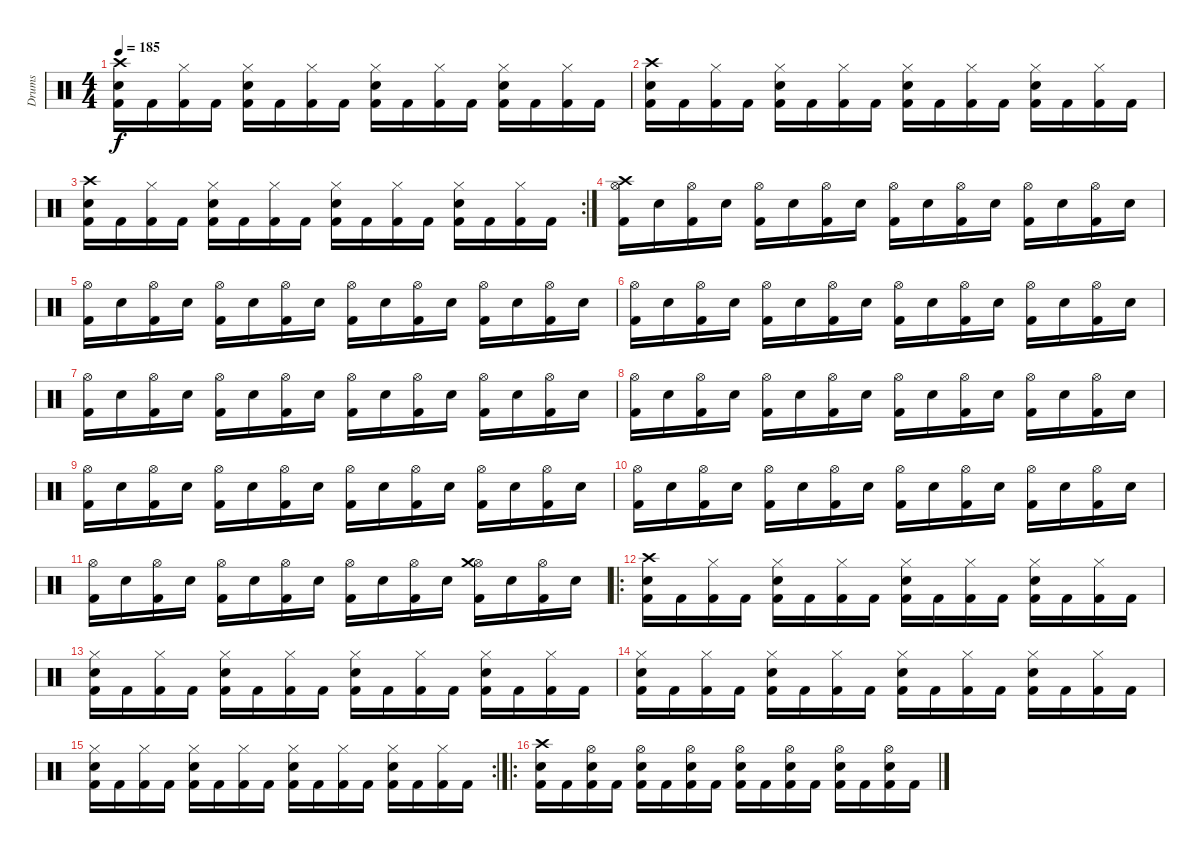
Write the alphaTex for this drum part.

\track ("Drums" "Drums") {instrument percussion}
\staff {score}
\articulation defaults
\ts (4 4)
\tempo 185
\clef neutral
\ks c
("Crash high (hit)" "Snare (hit) 2" "Kick (hit) 2").16{dy f} "Kick (hit) 2".16 ("Hi-Hat (closed)" "Kick (hit) 2").16 "Kick (hit) 2".16 ("Hi-Hat (closed)" "Snare (hit) 2" "Kick (hit) 2").16 "Kick (hit) 2".16 ("Hi-Hat (closed)" "Kick (hit) 2").16 "Kick (hit) 2".16 ("Hi-Hat (closed)" "Snare (hit) 2" "Kick (hit) 2").16 "Kick (hit) 2".16 ("Hi-Hat (closed)" "Kick (hit) 2").16 "Kick (hit) 2".16 ("Hi-Hat (closed)" "Snare (hit) 2" "Kick (hit) 2").16 "Kick (hit) 2".16 ("Hi-Hat (closed)" "Kick (hit) 2").16 "Kick (hit) 2".16 |
("Crash high (hit)" "Snare (hit) 2" "Kick (hit) 2").16 "Kick (hit) 2".16 ("Hi-Hat (closed)" "Kick (hit) 2").16 "Kick (hit) 2".16 ("Hi-Hat (closed)" "Snare (hit) 2" "Kick (hit) 2").16 "Kick (hit) 2".16 ("Hi-Hat (closed)" "Kick (hit) 2").16 "Kick (hit) 2".16 ("Hi-Hat (closed)" "Snare (hit) 2" "Kick (hit) 2").16 "Kick (hit) 2".16 ("Hi-Hat (closed)" "Kick (hit) 2").16 "Kick (hit) 2".16 ("Hi-Hat (closed)" "Snare (hit) 2" "Kick (hit) 2").16 "Kick (hit) 2".16 ("Hi-Hat (closed)" "Kick (hit) 2").16 "Kick (hit) 2".16 |
\rc 2
("Crash high (hit)" "Snare (hit) 2" "Kick (hit) 2").16 "Kick (hit) 2".16 ("Hi-Hat (closed)" "Kick (hit) 2").16 "Kick (hit) 2".16 ("Hi-Hat (closed)" "Snare (hit) 2" "Kick (hit) 2").16 "Kick (hit) 2".16 ("Hi-Hat (closed)" "Kick (hit) 2").16 "Kick (hit) 2".16 ("Hi-Hat (closed)" "Snare (hit) 2" "Kick (hit) 2").16 "Kick (hit) 2".16 ("Hi-Hat (closed)" "Kick (hit) 2").16 "Kick (hit) 2".16 ("Hi-Hat (closed)" "Snare (hit) 2" "Kick (hit) 2").16 "Kick (hit) 2".16 ("Hi-Hat (closed)" "Kick (hit) 2").16 "Kick (hit) 2".16 |
("Hi-Hat (open)" "Crash high (hit)" "Kick (hit) 2").16 "Snare (hit) 2".16 ("Hi-Hat (open)" "Kick (hit) 2").16 "Snare (hit) 2".16 ("Hi-Hat (open)" "Kick (hit) 2").16 "Snare (hit) 2".16 ("Hi-Hat (open)" "Kick (hit) 2").16 "Snare (hit) 2".16 ("Hi-Hat (open)" "Kick (hit) 2").16 "Snare (hit) 2".16 ("Hi-Hat (open)" "Kick (hit) 2").16 "Snare (hit) 2".16 ("Hi-Hat (open)" "Kick (hit) 2").16 "Snare (hit) 2".16 ("Hi-Hat (open)" "Kick (hit) 2").16 "Snare (hit) 2".16 |
("Hi-Hat (open)" "Kick (hit) 2").16 "Snare (hit) 2".16 ("Hi-Hat (open)" "Kick (hit) 2").16 "Snare (hit) 2".16 ("Hi-Hat (open)" "Kick (hit) 2").16 "Snare (hit) 2".16 ("Hi-Hat (open)" "Kick (hit) 2").16 "Snare (hit) 2".16 ("Hi-Hat (open)" "Kick (hit) 2").16 "Snare (hit) 2".16 ("Hi-Hat (open)" "Kick (hit) 2").16 "Snare (hit) 2".16 ("Hi-Hat (open)" "Kick (hit) 2").16 "Snare (hit) 2".16 ("Hi-Hat (open)" "Kick (hit) 2").16 "Snare (hit) 2".16 |
("Hi-Hat (open)" "Kick (hit) 2").16 "Snare (hit) 2".16 ("Hi-Hat (open)" "Kick (hit) 2").16 "Snare (hit) 2".16 ("Hi-Hat (open)" "Kick (hit) 2").16 "Snare (hit) 2".16 ("Hi-Hat (open)" "Kick (hit) 2").16 "Snare (hit) 2".16 ("Hi-Hat (open)" "Kick (hit) 2").16 "Snare (hit) 2".16 ("Hi-Hat (open)" "Kick (hit) 2").16 "Snare (hit) 2".16 ("Hi-Hat (open)" "Kick (hit) 2").16 "Snare (hit) 2".16 ("Hi-Hat (open)" "Kick (hit) 2").16 "Snare (hit) 2".16 |
("Hi-Hat (open)" "Kick (hit) 2").16 "Snare (hit) 2".16 ("Hi-Hat (open)" "Kick (hit) 2").16 "Snare (hit) 2".16 ("Hi-Hat (open)" "Kick (hit) 2").16 "Snare (hit) 2".16 ("Hi-Hat (open)" "Kick (hit) 2").16 "Snare (hit) 2".16 ("Hi-Hat (open)" "Kick (hit) 2").16 "Snare (hit) 2".16 ("Hi-Hat (open)" "Kick (hit) 2").16 "Snare (hit) 2".16 ("Hi-Hat (open)" "Kick (hit) 2").16 "Snare (hit) 2".16 ("Hi-Hat (open)" "Kick (hit) 2").16 "Snare (hit) 2".16 |
("Hi-Hat (open)" "Kick (hit) 2").16 "Snare (hit) 2".16 ("Hi-Hat (open)" "Kick (hit) 2").16 "Snare (hit) 2".16 ("Hi-Hat (open)" "Kick (hit) 2").16 "Snare (hit) 2".16 ("Hi-Hat (open)" "Kick (hit) 2").16 "Snare (hit) 2".16 ("Hi-Hat (open)" "Kick (hit) 2").16 "Snare (hit) 2".16 ("Hi-Hat (open)" "Kick (hit) 2").16 "Snare (hit) 2".16 ("Hi-Hat (open)" "Kick (hit) 2").16 "Snare (hit) 2".16 ("Hi-Hat (open)" "Kick (hit) 2").16 "Snare (hit) 2".16 |
("Hi-Hat (open)" "Kick (hit) 2").16 "Snare (hit) 2".16 ("Hi-Hat (open)" "Kick (hit) 2").16 "Snare (hit) 2".16 ("Hi-Hat (open)" "Kick (hit) 2").16 "Snare (hit) 2".16 ("Hi-Hat (open)" "Kick (hit) 2").16 "Snare (hit) 2".16 ("Hi-Hat (open)" "Kick (hit) 2").16 "Snare (hit) 2".16 ("Hi-Hat (open)" "Kick (hit) 2").16 "Snare (hit) 2".16 ("Hi-Hat (open)" "Kick (hit) 2").16 "Snare (hit) 2".16 ("Hi-Hat (open)" "Kick (hit) 2").16 "Snare (hit) 2".16 |
("Hi-Hat (open)" "Kick (hit) 2").16 "Snare (hit) 2".16 ("Hi-Hat (open)" "Kick (hit) 2").16 "Snare (hit) 2".16 ("Hi-Hat (open)" "Kick (hit) 2").16 "Snare (hit) 2".16 ("Hi-Hat (open)" "Kick (hit) 2").16 "Snare (hit) 2".16 ("Hi-Hat (open)" "Kick (hit) 2").16 "Snare (hit) 2".16 ("Hi-Hat (open)" "Kick (hit) 2").16 "Snare (hit) 2".16 ("Hi-Hat (open)" "Kick (hit) 2").16 "Snare (hit) 2".16 ("Hi-Hat (open)" "Kick (hit) 2").16 "Snare (hit) 2".16 |
("Hi-Hat (open)" "Kick (hit) 2").16 "Snare (hit) 2".16 ("Hi-Hat (open)" "Kick (hit) 2").16 "Snare (hit) 2".16 ("Hi-Hat (open)" "Kick (hit) 2").16 "Snare (hit) 2".16 ("Hi-Hat (open)" "Kick (hit) 2").16 "Snare (hit) 2".16 ("Hi-Hat (open)" "Kick (hit) 2").16 "Snare (hit) 2".16 ("Hi-Hat (open)" "Kick (hit) 2").16 "Snare (hit) 2".16 ("Hi-Hat (open)" "Crash medium (hit)" "Kick (hit) 2").16 "Snare (hit) 2".16 ("Hi-Hat (open)" "Kick (hit) 2").16 "Snare (hit) 2".16 |
\ro
("Crash high (hit)" "Snare (hit) 2" "Kick (hit) 2").16 "Kick (hit) 2".16 ("Hi-Hat (closed)" "Kick (hit) 2").16 "Kick (hit) 2".16 ("Hi-Hat (closed)" "Snare (hit) 2" "Kick (hit) 2").16 "Kick (hit) 2".16 ("Hi-Hat (closed)" "Kick (hit) 2").16 "Kick (hit) 2".16 ("Hi-Hat (closed)" "Snare (hit) 2" "Kick (hit) 2").16 "Kick (hit) 2".16 ("Hi-Hat (closed)" "Kick (hit) 2").16 "Kick (hit) 2".16 ("Hi-Hat (closed)" "Snare (hit) 2" "Kick (hit) 2").16 "Kick (hit) 2".16 ("Hi-Hat (closed)" "Kick (hit) 2").16 "Kick (hit) 2".16 |
("Hi-Hat (closed)" "Snare (hit) 2" "Kick (hit) 2").16 "Kick (hit) 2".16 ("Hi-Hat (closed)" "Kick (hit) 2").16 "Kick (hit) 2".16 ("Hi-Hat (closed)" "Snare (hit) 2" "Kick (hit) 2").16 "Kick (hit) 2".16 ("Hi-Hat (closed)" "Kick (hit) 2").16 "Kick (hit) 2".16 ("Hi-Hat (closed)" "Snare (hit) 2" "Kick (hit) 2").16 "Kick (hit) 2".16 ("Hi-Hat (closed)" "Kick (hit) 2").16 "Kick (hit) 2".16 ("Hi-Hat (closed)" "Snare (hit) 2" "Kick (hit) 2").16 "Kick (hit) 2".16 ("Hi-Hat (closed)" "Kick (hit) 2").16 "Kick (hit) 2".16 |
("Hi-Hat (closed)" "Snare (hit) 2" "Kick (hit) 2").16 "Kick (hit) 2".16 ("Hi-Hat (closed)" "Kick (hit) 2").16 "Kick (hit) 2".16 ("Hi-Hat (closed)" "Snare (hit) 2" "Kick (hit) 2").16 "Kick (hit) 2".16 ("Hi-Hat (closed)" "Kick (hit) 2").16 "Kick (hit) 2".16 ("Hi-Hat (closed)" "Snare (hit) 2" "Kick (hit) 2").16 "Kick (hit) 2".16 ("Hi-Hat (closed)" "Kick (hit) 2").16 "Kick (hit) 2".16 ("Hi-Hat (closed)" "Snare (hit) 2" "Kick (hit) 2").16 "Kick (hit) 2".16 ("Hi-Hat (closed)" "Kick (hit) 2").16 "Kick (hit) 2".16 |
\rc 2
("Hi-Hat (closed)" "Snare (hit) 2" "Kick (hit) 2").16 "Kick (hit) 2".16 ("Hi-Hat (closed)" "Kick (hit) 2").16 "Kick (hit) 2".16 ("Hi-Hat (closed)" "Snare (hit) 2" "Kick (hit) 2").16 "Kick (hit) 2".16 ("Hi-Hat (closed)" "Kick (hit) 2").16 "Kick (hit) 2".16 ("Hi-Hat (closed)" "Snare (hit) 2" "Kick (hit) 2").16 "Kick (hit) 2".16 ("Hi-Hat (closed)" "Kick (hit) 2").16 "Kick (hit) 2".16 ("Hi-Hat (closed)" "Snare (hit) 2" "Kick (hit) 2").16 "Kick (hit) 2".16 ("Hi-Hat (closed)" "Kick (hit) 2").16 "Kick (hit) 2".16 |
\ro
("Crash high (hit)" "Snare (hit) 2" "Kick (hit) 2").16 "Kick (hit) 2".16 ("Hi-Hat (open)" "Snare (hit) 2" "Kick (hit) 2").16 "Kick (hit) 2".16 ("Hi-Hat (open)" "Snare (hit) 2" "Kick (hit) 2").16 "Kick (hit) 2".16 ("Hi-Hat (open)" "Snare (hit) 2" "Kick (hit) 2").16 "Kick (hit) 2".16 ("Hi-Hat (open)" "Snare (hit) 2" "Kick (hit) 2").16 "Kick (hit) 2".16 ("Hi-Hat (open)" "Snare (hit) 2" "Kick (hit) 2").16 "Kick (hit) 2".16 ("Hi-Hat (open)" "Snare (hit) 2" "Kick (hit) 2").16 "Kick (hit) 2".16 ("Hi-Hat (open)" "Snare (hit) 2" "Kick (hit) 2").16 "Kick (hit) 2".16
